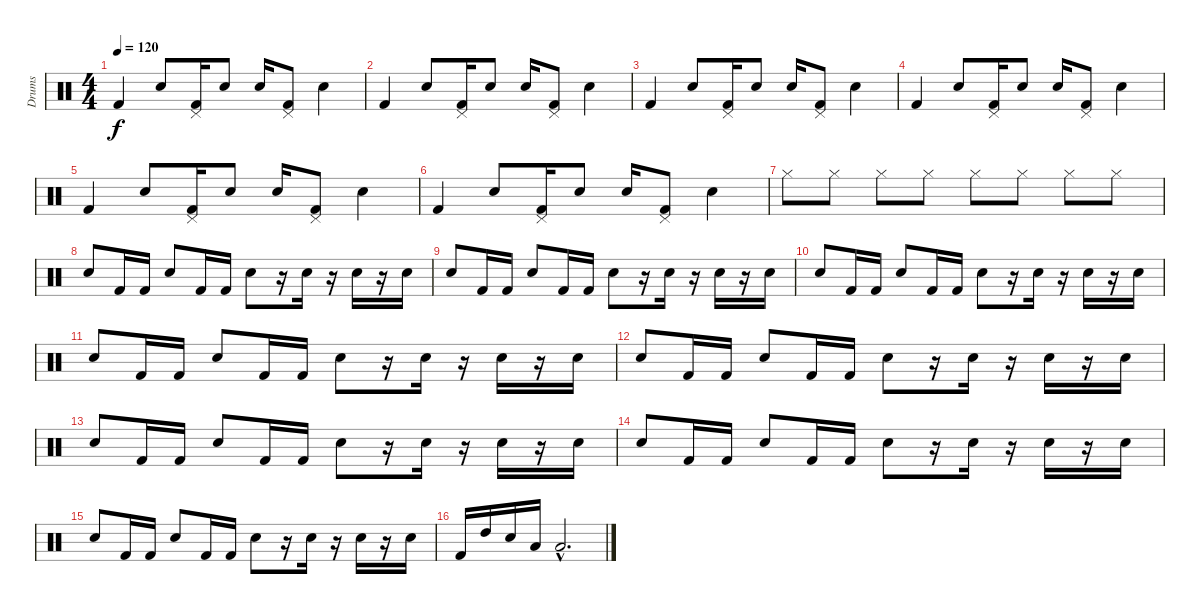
\track ("Drums" "Drums") {instrument percussion}
\staff {score}
\articulation defaults
\ts (4 4)
\tempo 120
\clef neutral
\ks c "Kick (hit) 2".4{dy f} "Snare (hit) 2".8
("Pedal Hi-Hat (hit)" "Kick (hit) 2").16 "Snare (hit) 2".8 "Snare (hit) 2".16 ("Pedal Hi-Hat (hit)" "Kick (hit) 2").8 "Snare (hit) 2".4 |
"Kick (hit) 2".4 "Snare (hit) 2".8 ("Pedal Hi-Hat (hit)" "Kick (hit) 2").16 "Snare (hit) 2".8 "Snare (hit) 2".16 ("Pedal Hi-Hat (hit)" "Kick (hit) 2").8 "Snare (hit) 2".4 |
"Kick (hit) 2".4 "Snare (hit) 2".8 ("Pedal Hi-Hat (hit)" "Kick (hit) 2").16 "Snare (hit) 2".8 "Snare (hit) 2".16 ("Pedal Hi-Hat (hit)" "Kick (hit) 2").8 "Snare (hit) 2".4 |
"Kick (hit) 2".4 "Snare (hit) 2".8 ("Pedal Hi-Hat (hit)" "Kick (hit) 2").16 "Snare (hit) 2".8 "Snare (hit) 2".16 ("Pedal Hi-Hat (hit)" "Kick (hit) 2").8 "Snare (hit) 2".4 |
"Kick (hit) 2".4 "Snare (hit) 2".8 ("Pedal Hi-Hat (hit)" "Kick (hit) 2").16 "Snare (hit) 2".8 "Snare (hit) 2".16 ("Pedal Hi-Hat (hit)" "Kick (hit) 2").8 "Snare (hit) 2".4 |
"Kick (hit) 2".4 "Snare (hit) 2".8 ("Pedal Hi-Hat (hit)" "Kick (hit) 2").16 "Snare (hit) 2".8 "Snare (hit) 2".16 ("Pedal Hi-Hat (hit)" "Kick (hit) 2").8 "Snare (hit) 2".4 |
"Hi-Hat (closed)".8 "Hi-Hat (closed)".8 "Hi-Hat (closed)".8 "Hi-Hat (closed)".8 "Hi-Hat (closed)".8 "Hi-Hat (closed)".8 "Hi-Hat (closed)".8 "Hi-Hat (closed)".8 |
"Snare (hit) 2".8 "Kick (hit) 2".16 "Kick (hit) 2".16 "Snare (hit) 2".8 "Kick (hit) 2".16 "Kick (hit) 2".16 "Snare (hit) 2".8 r.16 "Snare (hit) 2".16 r.16 "Snare (hit) 2".16 r.16 "Snare (hit) 2".16 |
"Snare (hit) 2".8 "Kick (hit) 2".16 "Kick (hit) 2".16 "Snare (hit) 2".8 "Kick (hit) 2".16 "Kick (hit) 2".16 "Snare (hit) 2".8 r.16 "Snare (hit) 2".16 r.16 "Snare (hit) 2".16 r.16 "Snare (hit) 2".16 |
"Snare (hit) 2".8 "Kick (hit) 2".16 "Kick (hit) 2".16 "Snare (hit) 2".8 "Kick (hit) 2".16 "Kick (hit) 2".16 "Snare (hit) 2".8 r.16 "Snare (hit) 2".16 r.16 "Snare (hit) 2".16 r.16 "Snare (hit) 2".16 |
"Snare (hit) 2".8 "Kick (hit) 2".16 "Kick (hit) 2".16 "Snare (hit) 2".8 "Kick (hit) 2".16 "Kick (hit) 2".16 "Snare (hit) 2".8 r.16 "Snare (hit) 2".16 r.16 "Snare (hit) 2".16 r.16 "Snare (hit) 2".16 |
"Snare (hit) 2".8 "Kick (hit) 2".16 "Kick (hit) 2".16 "Snare (hit) 2".8 "Kick (hit) 2".16 "Kick (hit) 2".16 "Snare (hit) 2".8 r.16 "Snare (hit) 2".16 r.16 "Snare (hit) 2".16 r.16 "Snare (hit) 2".16 |
"Snare (hit) 2".8 "Kick (hit) 2".16 "Kick (hit) 2".16 "Snare (hit) 2".8 "Kick (hit) 2".16 "Kick (hit) 2".16 "Snare (hit) 2".8 r.16 "Snare (hit) 2".16 r.16 "Snare (hit) 2".16 r.16 "Snare (hit) 2".16 |
"Snare (hit) 2".8 "Kick (hit) 2".16 "Kick (hit) 2".16 "Snare (hit) 2".8 "Kick (hit) 2".16 "Kick (hit) 2".16 "Snare (hit) 2".8 r.16 "Snare (hit) 2".16 r.16 "Snare (hit) 2".16 r.16 "Snare (hit) 2".16 |
"Snare (hit) 2".8 "Kick (hit) 2".16 "Kick (hit) 2".16 "Snare (hit) 2".8 "Kick (hit) 2".16 "Kick (hit) 2".16 "Snare (hit) 2".8 r.16 "Snare (hit) 2".16 r.16 "Snare (hit) 2".16 r.16 "Snare (hit) 2".16 |
"Kick (hit) 2".16 "High Tom (hit)".16 "Snare (hit) 2".16 "Low Floor Tom (hit)".16 "Low Floor Tom (hit)"{hac}.2{d}
